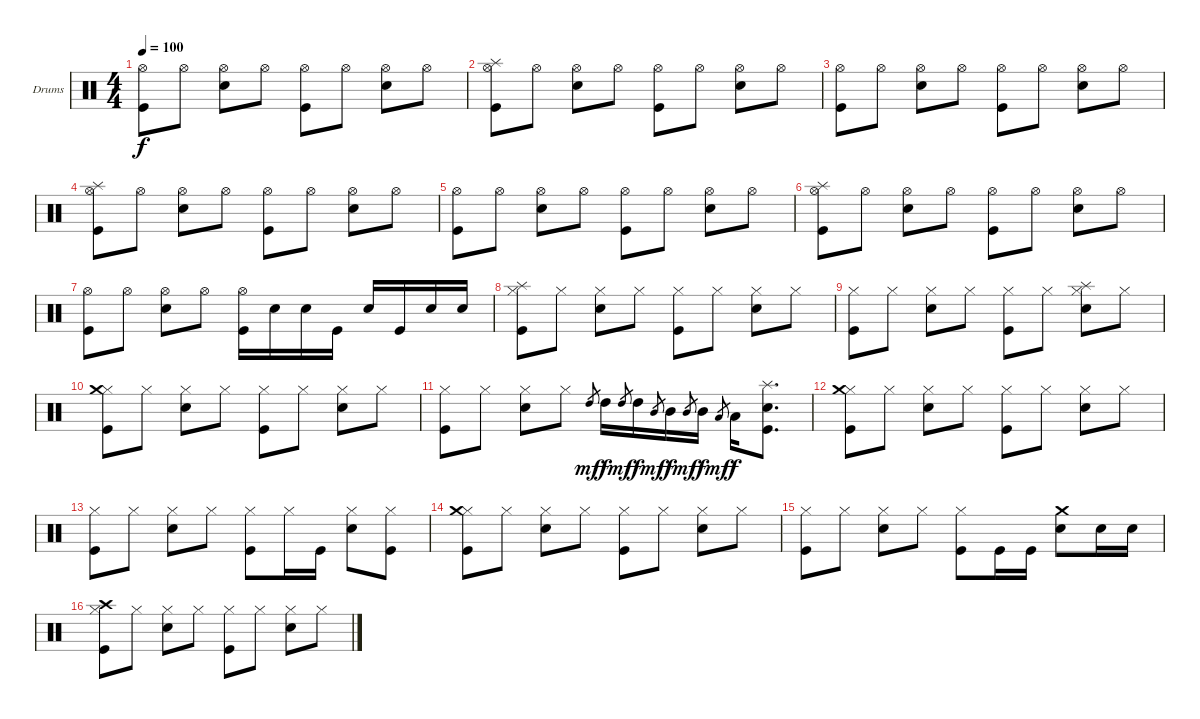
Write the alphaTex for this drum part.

\defaultSystemsLayout 4
\bracketExtendMode groupsimilarinstruments
\firstSystemTrackNameOrientation horizontal
\otherSystemsTrackNameOrientation horizontal
\track ("Nick Menza " "Drums") {instrument percussion}
\staff {score}
\articulation defaults
\ts (4 4)
\tempo 100
\clef neutral
\ks c
("Hi-Hat (open)" "Kick (hit)").8{dy f} "Hi-Hat (open)".8 ("Hi-Hat (open)" "Snare (hit) 2").8 "Hi-Hat (open)".8 ("Hi-Hat (open)" "Kick (hit)").8 "Hi-Hat (open)".8 ("Hi-Hat (open)" "Snare (hit) 2").8 "Hi-Hat (open)".8 |
("Hi-Hat (open)" "Kick (hit)" "Splash (hit)").8 "Hi-Hat (open)".8 ("Hi-Hat (open)" "Snare (hit) 2").8 "Hi-Hat (open)".8 ("Hi-Hat (open)" "Kick (hit)").8 "Hi-Hat (open)".8 ("Hi-Hat (open)" "Snare (hit) 2").8 "Hi-Hat (open)".8 |
("Hi-Hat (open)" "Kick (hit)").8 "Hi-Hat (open)".8 ("Hi-Hat (open)" "Snare (hit) 2").8 "Hi-Hat (open)".8 ("Hi-Hat (open)" "Kick (hit)").8 "Hi-Hat (open)".8 ("Hi-Hat (open)" "Snare (hit) 2").8 "Hi-Hat (open)".8 |
("Hi-Hat (open)" "Kick (hit)" "Splash (hit)").8 "Hi-Hat (open)".8 ("Hi-Hat (open)" "Snare (hit) 2").8 "Hi-Hat (open)".8 ("Hi-Hat (open)" "Kick (hit)").8 "Hi-Hat (open)".8 ("Hi-Hat (open)" "Snare (hit) 2").8 "Hi-Hat (open)".8 |
("Hi-Hat (open)" "Kick (hit)").8 "Hi-Hat (open)".8 ("Hi-Hat (open)" "Snare (hit) 2").8 "Hi-Hat (open)".8 ("Hi-Hat (open)" "Kick (hit)").8 "Hi-Hat (open)".8 ("Hi-Hat (open)" "Snare (hit) 2").8 "Hi-Hat (open)".8 |
("Hi-Hat (open)" "Kick (hit)" "Splash (hit)").8 "Hi-Hat (open)".8 ("Hi-Hat (open)" "Snare (hit) 2").8 "Hi-Hat (open)".8 ("Hi-Hat (open)" "Kick (hit)").8 "Hi-Hat (open)".8 ("Hi-Hat (open)" "Snare (hit) 2").8 "Hi-Hat (open)".8 |
("Hi-Hat (open)" "Kick (hit)").8 "Hi-Hat (open)".8 ("Hi-Hat (open)" "Snare (hit) 2").8 "Hi-Hat (open)".8 ("Hi-Hat (open)" "Kick (hit)").16 "Snare (hit) 2".16 "Snare (hit) 2".16 "Kick (hit)".16 "Snare (hit) 2".16 "Kick (hit)".16 "Snare (hit) 2".16 "Snare (hit) 2".16 |
("Hi-Hat (closed)" "Kick (hit)" "Splash (hit)").8 "Hi-Hat (closed)".8 ("Hi-Hat (closed)" "Snare (hit) 2").8 "Hi-Hat (closed)".8 ("Hi-Hat (closed)" "Kick (hit)").8 "Hi-Hat (closed)".8 ("Hi-Hat (closed)" "Snare (hit) 2").8 "Hi-Hat (closed)".8 |
("Hi-Hat (closed)" "Kick (hit)").8 "Hi-Hat (closed)".8 ("Hi-Hat (closed)" "Snare (hit) 2").8 "Hi-Hat (closed)".8 ("Hi-Hat (closed)" "Kick (hit)").8 "Hi-Hat (closed)".8 ("Hi-Hat (closed)" "Snare (hit) 2" "Splash (hit)").8 "Hi-Hat (closed)".8 |
("Hi-Hat (closed)" "Kick (hit)" "Crash medium (hit)").8 "Hi-Hat (closed)".8 ("Hi-Hat (closed)" "Snare (hit) 2").8 "Hi-Hat (closed)".8 ("Hi-Hat (closed)" "Kick (hit)").8 "Hi-Hat (closed)".8 ("Hi-Hat (closed)" "Snare (hit) 2").8 "Hi-Hat (closed)".8 |
("Hi-Hat (closed)" "Kick (hit)").8 "Hi-Hat (closed)".8 ("Hi-Hat (closed)" "Snare (hit) 2").8 "Hi-Hat (closed)".8 "High Tom (hit)".8{gr dy mf} "High Tom (hit)".16{dy f} "High Tom (hit)".8{gr dy mf} "High Tom (hit)".16{dy f} "Mid Tom (hit)".8{gr dy mf} "Mid Tom (hit)".16{dy f} "Mid Tom (hit)".8{gr dy mf} "Mid Tom (hit)".16{dy f} "Low Tom (hit)".8{gr dy mf} "Low Tom (hit)".16{dy f} ("Snare (hit) 2" "Splash (hit)" "Kick (hit)").8{d} |
("Hi-Hat (closed)" "Kick (hit)" "Crash medium (hit)").8 "Hi-Hat (closed)".8 ("Hi-Hat (closed)" "Snare (hit) 2").8 "Hi-Hat (closed)".8 ("Hi-Hat (closed)" "Kick (hit)").8 "Hi-Hat (closed)".8 ("Hi-Hat (closed)" "Snare (hit) 2").8 "Hi-Hat (closed)".8 |
("Hi-Hat (closed)" "Kick (hit)").8 "Hi-Hat (closed)".8 ("Hi-Hat (closed)" "Snare (hit) 2").8 "Hi-Hat (closed)".8 ("Hi-Hat (closed)" "Kick (hit)").8 "Hi-Hat (closed)".16 "Kick (hit)".16 ("Hi-Hat (closed)" "Snare (hit) 2").8 ("Hi-Hat (closed)" "Kick (hit)").8 |
("Hi-Hat (closed)" "Kick (hit)" "Crash medium (hit)").8 "Hi-Hat (closed)".8 ("Hi-Hat (closed)" "Snare (hit) 2").8 "Hi-Hat (closed)".8 ("Hi-Hat (closed)" "Kick (hit)").8 "Hi-Hat (closed)".8 ("Hi-Hat (closed)" "Snare (hit) 2").8 "Hi-Hat (closed)".8 |
("Hi-Hat (closed)" "Kick (hit)").8 "Hi-Hat (closed)".8 ("Hi-Hat (closed)" "Snare (hit) 2").8 "Hi-Hat (closed)".8 ("Hi-Hat (closed)" "Kick (hit)").8 "Kick (hit)".16 "Kick (hit)".16 ("Snare (hit) 2" "Crash medium (hit)").8 "Snare (hit) 2".16 "Snare (hit) 2".16 |
("Hi-Hat (closed)" "Kick (hit)" "Crash high (hit)").8 "Hi-Hat (closed)".8 ("Hi-Hat (closed)" "Snare (hit) 2").8 "Hi-Hat (closed)".8 ("Hi-Hat (closed)" "Kick (hit)").8 "Hi-Hat (closed)".8 ("Hi-Hat (closed)" "Snare (hit) 2").8 "Hi-Hat (closed)".8
